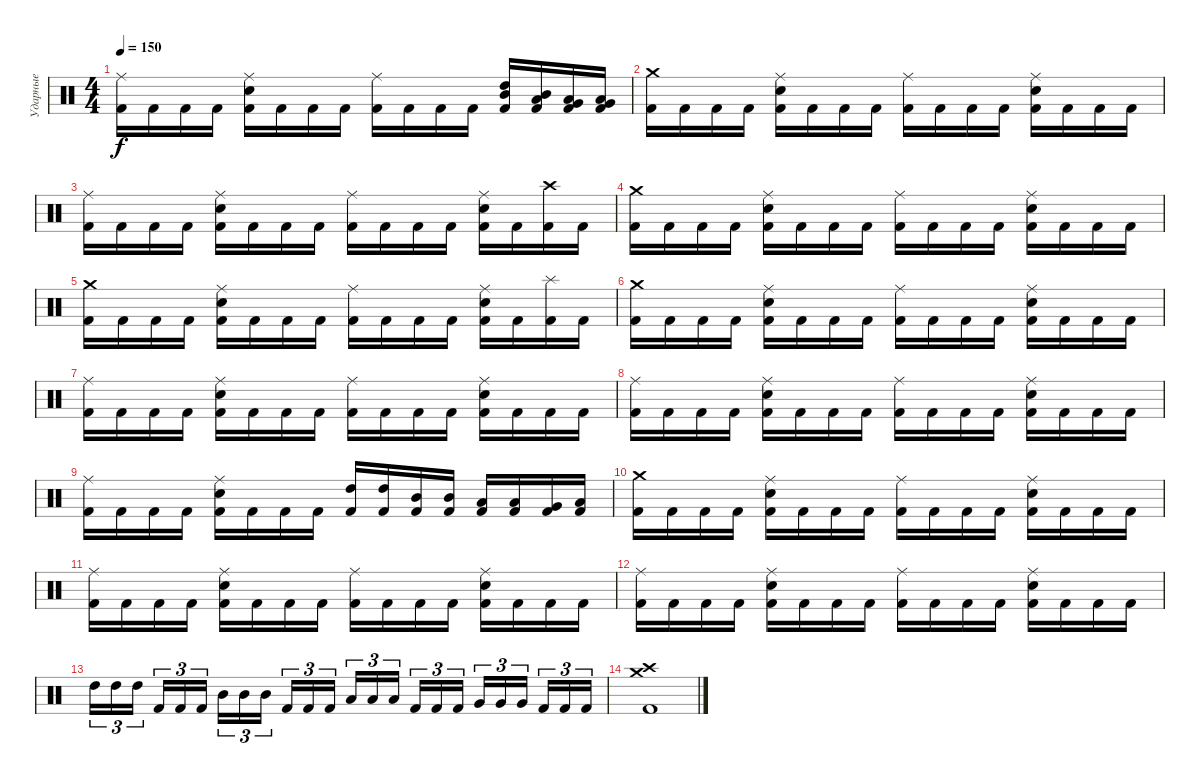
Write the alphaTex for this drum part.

\track ("Ударные" "Ударные") {instrument percussion}
\staff {score}
\articulation defaults
\ts (4 4)
\tempo 150
\clef neutral
\ks c
("Ride (middle)" "Kick (hit) 2").16{dy f} "Kick (hit) 2".16 "Kick (hit) 2".16 "Kick (hit) 2".16 ("Ride (middle)" "Electric Snare (hit)" "Kick (hit) 2").16 "Kick (hit) 2".16 "Kick (hit) 2".16 "Kick (hit) 2".16 ("Ride (middle)" "Kick (hit) 2").16 "Kick (hit) 2".16 "Kick (hit) 2".16 "Kick (hit) 2".16 ("High Tom (hit)" "Mid Tom (hit)" "Kick (hit) 2").16 ("Mid Tom (hit)" "Low Tom (hit)" "Kick (hit) 2").16 ("Low Tom (hit)" "Very Low Tom (hit)" "Kick (hit) 2").16 ("Very Low Tom (hit)" "Low Floor Tom (hit)" "Kick (hit) 2").16 |
("Crash medium (hit)" "Kick (hit) 2").16 "Kick (hit) 2".16 "Kick (hit) 2".16 "Kick (hit) 2".16 ("Ride (middle)" "Electric Snare (hit)" "Kick (hit) 2").16 "Kick (hit) 2".16 "Kick (hit) 2".16 "Kick (hit) 2".16 ("Ride (middle)" "Kick (hit) 2").16 "Kick (hit) 2".16 "Kick (hit) 2".16 "Kick (hit) 2".16 ("Ride (middle)" "Electric Snare (hit)" "Kick (hit) 2").16 "Kick (hit) 2".16 "Kick (hit) 2".16 "Kick (hit) 2".16 |
("Ride (middle)" "Kick (hit) 2").16 "Kick (hit) 2".16 "Kick (hit) 2".16 "Kick (hit) 2".16 ("Ride (middle)" "Electric Snare (hit)" "Kick (hit) 2").16 "Kick (hit) 2".16 "Kick (hit) 2".16 "Kick (hit) 2".16 ("Ride (middle)" "Kick (hit) 2").16 "Kick (hit) 2".16 "Kick (hit) 2".16 "Kick (hit) 2".16 ("Ride (middle)" "Electric Snare (hit)" "Kick (hit) 2").16 "Kick (hit) 2".16 ("Crash high (hit)" "Kick (hit) 2").16 "Kick (hit) 2".16 |
("Crash medium (hit)" "Kick (hit) 2").16 "Kick (hit) 2".16 "Kick (hit) 2".16 "Kick (hit) 2".16 ("Ride (middle)" "Electric Snare (hit)" "Kick (hit) 2").16 "Kick (hit) 2".16 "Kick (hit) 2".16 "Kick (hit) 2".16 ("Ride (middle)" "Kick (hit) 2").16 "Kick (hit) 2".16 "Kick (hit) 2".16 "Kick (hit) 2".16 ("Ride (middle)" "Electric Snare (hit)" "Kick (hit) 2").16 "Kick (hit) 2".16 "Kick (hit) 2".16 "Kick (hit) 2".16 |
("Crash medium (hit)" "Kick (hit) 2").16 "Kick (hit) 2".16 "Kick (hit) 2".16 "Kick (hit) 2".16 ("Ride (middle)" "Electric Snare (hit)" "Kick (hit) 2").16 "Kick (hit) 2".16 "Kick (hit) 2".16 "Kick (hit) 2".16 ("Ride (middle)" "Kick (hit) 2").16 "Kick (hit) 2".16 "Kick (hit) 2".16 "Kick (hit) 2".16 ("Ride (middle)" "Electric Snare (hit)" "Kick (hit) 2").16 "Kick (hit) 2".16 ("Splash (hit)" "Kick (hit) 2").16 "Kick (hit) 2".16 |
("Crash medium (hit)" "Kick (hit) 2").16 "Kick (hit) 2".16 "Kick (hit) 2".16 "Kick (hit) 2".16 ("Ride (middle)" "Electric Snare (hit)" "Kick (hit) 2").16 "Kick (hit) 2".16 "Kick (hit) 2".16 "Kick (hit) 2".16 ("Ride (middle)" "Kick (hit) 2").16 "Kick (hit) 2".16 "Kick (hit) 2".16 "Kick (hit) 2".16 ("Ride (middle)" "Electric Snare (hit)" "Kick (hit) 2").16 "Kick (hit) 2".16 "Kick (hit) 2".16 "Kick (hit) 2".16 |
("Ride (middle)" "Kick (hit) 2").16 "Kick (hit) 2".16 "Kick (hit) 2".16 "Kick (hit) 2".16 ("Ride (middle)" "Electric Snare (hit)" "Kick (hit) 2").16 "Kick (hit) 2".16 "Kick (hit) 2".16 "Kick (hit) 2".16 ("Ride (middle)" "Kick (hit) 2").16 "Kick (hit) 2".16 "Kick (hit) 2".16 "Kick (hit) 2".16 ("Ride (middle)" "Electric Snare (hit)" "Kick (hit) 2").16 "Kick (hit) 2".16 "Kick (hit) 2".16 "Kick (hit) 2".16 |
("Ride (middle)" "Kick (hit) 2").16 "Kick (hit) 2".16 "Kick (hit) 2".16 "Kick (hit) 2".16 ("Ride (middle)" "Electric Snare (hit)" "Kick (hit) 2").16 "Kick (hit) 2".16 "Kick (hit) 2".16 "Kick (hit) 2".16 ("Ride (middle)" "Kick (hit) 2").16 "Kick (hit) 2".16 "Kick (hit) 2".16 "Kick (hit) 2".16 ("Ride (middle)" "Electric Snare (hit)" "Kick (hit) 2").16 "Kick (hit) 2".16 "Kick (hit) 2".16 "Kick (hit) 2".16 |
("Ride (middle)" "Kick (hit) 2").16 "Kick (hit) 2".16 "Kick (hit) 2".16 "Kick (hit) 2".16 ("Ride (middle)" "Electric Snare (hit)" "Kick (hit) 2").16 "Kick (hit) 2".16 "Kick (hit) 2".16 "Kick (hit) 2".16 ("High Tom (hit)" "Kick (hit) 2").16 ("High Tom (hit)" "Kick (hit) 2").16 ("Mid Tom (hit)" "Kick (hit) 2").16 ("Mid Tom (hit)" "Kick (hit) 2").16 ("Low Tom (hit)" "Kick (hit) 2").16 ("Low Tom (hit)" "Kick (hit) 2").16 ("Very Low Tom (hit)" "Kick (hit) 2").16 ("Low Floor Tom (hit)" "Kick (hit) 2").16 |
("Crash medium (hit)" "Kick (hit) 2").16 "Kick (hit) 2".16 "Kick (hit) 2".16 "Kick (hit) 2".16 ("Ride (middle)" "Electric Snare (hit)" "Kick (hit) 2").16 "Kick (hit) 2".16 "Kick (hit) 2".16 "Kick (hit) 2".16 ("Ride (middle)" "Kick (hit) 2").16 "Kick (hit) 2".16 "Kick (hit) 2".16 "Kick (hit) 2".16 ("Ride (middle)" "Electric Snare (hit)" "Kick (hit) 2").16 "Kick (hit) 2".16 "Kick (hit) 2".16 "Kick (hit) 2".16 |
("Ride (middle)" "Kick (hit) 2").16 "Kick (hit) 2".16 "Kick (hit) 2".16 "Kick (hit) 2".16 ("Ride (middle)" "Electric Snare (hit)" "Kick (hit) 2").16 "Kick (hit) 2".16 "Kick (hit) 2".16 "Kick (hit) 2".16 ("Ride (middle)" "Kick (hit) 2").16 "Kick (hit) 2".16 "Kick (hit) 2".16 "Kick (hit) 2".16 ("Ride (middle)" "Electric Snare (hit)" "Kick (hit) 2").16 "Kick (hit) 2".16 "Kick (hit) 2".16 "Kick (hit) 2".16 |
("Ride (middle)" "Kick (hit) 2").16 "Kick (hit) 2".16 "Kick (hit) 2".16 "Kick (hit) 2".16 ("Ride (middle)" "Electric Snare (hit)" "Kick (hit) 2").16 "Kick (hit) 2".16 "Kick (hit) 2".16 "Kick (hit) 2".16 ("Ride (middle)" "Kick (hit) 2").16 "Kick (hit) 2".16 "Kick (hit) 2".16 "Kick (hit) 2".16 ("Ride (middle)" "Electric Snare (hit)" "Kick (hit) 2").16 "Kick (hit) 2".16 "Kick (hit) 2".16 "Kick (hit) 2".16 |
"High Tom (hit)".16{tu (3 2)} "High Tom (hit)".16{tu (3 2)} "High Tom (hit)".16{tu (3 2) beam splitsecondary} "Kick (hit) 2".16{tu (3 2)} "Kick (hit) 2".16{tu (3 2)} "Kick (hit) 2".16{tu (3 2)} "Mid Tom (hit)".16{tu (3 2)} "Mid Tom (hit)".16{tu (3 2)} "Mid Tom (hit)".16{tu (3 2) beam splitsecondary} "Kick (hit) 2".16{tu (3 2)} "Kick (hit) 2".16{tu (3 2)} "Kick (hit) 2".16{tu (3 2)} "Low Tom (hit)".16{tu (3 2)} "Low Tom (hit)".16{tu (3 2)} "Low Tom (hit)".16{tu (3 2) beam splitsecondary} "Kick (hit) 2".16{tu (3 2)} "Kick (hit) 2".16{tu (3 2)} "Kick (hit) 2".16{tu (3 2)} "Very Low Tom (hit)".16{tu (3 2)} "Very Low Tom (hit)".16{tu (3 2)} "Very Low Tom (hit)".16{tu (3 2) beam splitsecondary} "Kick (hit) 2".16{tu (3 2)} "Kick (hit) 2".16{tu (3 2)} "Kick (hit) 2".16{tu (3 2)} |
("Crash medium (hit)" "Crash high (hit)" "Kick (hit) 2").1
